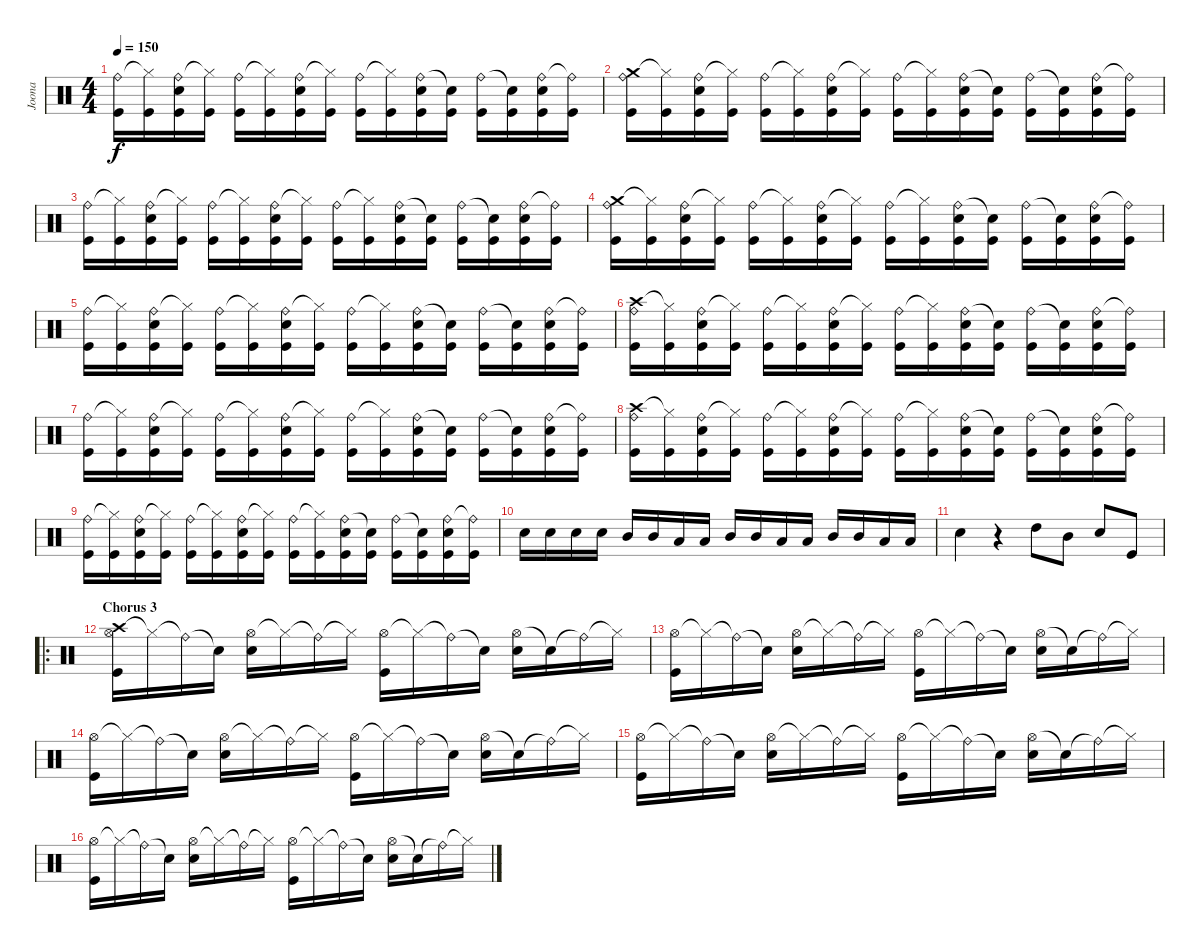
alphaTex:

\track ("Joona" "Joona") {instrument percussion}
\staff {score}
\articulation defaults
\ts (4 4)
\tempo 150
\clef neutral
\ks c
("Ride (bell)" "Kick (hit)").16{dy f} ("Hi-Hat (closed)"{t} "Kick (hit)").16 ("Ride (bell)" "Snare (hit) 2" "Kick (hit)").16 ("Hi-Hat (closed)"{t} "Kick (hit)").16 ("Ride (bell)" "Kick (hit)").16 ("Hi-Hat (closed)"{t} "Kick (hit)").16 ("Ride (bell)" "Snare (hit) 2" "Kick (hit)").16 ("Hi-Hat (closed)"{t} "Kick (hit)").16 ("Ride (bell)" "Kick (hit)").16 ("Hi-Hat (closed)"{t} "Kick (hit)").16 ("Ride (bell)" "Snare (hit) 2" "Kick (hit)").16 ("Snare (hit)"{t} "Kick (hit)").16 ("Ride (bell)" "Kick (hit)").16 ("Snare (hit)"{t} "Kick (hit)").16 ("Ride (bell)" "Snare (hit) 2" "Kick (hit)").16 ("Ride (bell)"{t} "Kick (hit)").16 |
("Crash medium (hit)" "Ride (bell)" "Kick (hit)").16 ("Hi-Hat (closed)"{t} "Kick (hit)").16 ("Ride (bell)" "Snare (hit) 2" "Kick (hit)").16 ("Hi-Hat (closed)"{t} "Kick (hit)").16 ("Ride (bell)" "Kick (hit)").16 ("Hi-Hat (closed)"{t} "Kick (hit)").16 ("Ride (bell)" "Snare (hit) 2" "Kick (hit)").16 ("Hi-Hat (closed)"{t} "Kick (hit)").16 ("Ride (bell)" "Kick (hit)").16 ("Hi-Hat (closed)"{t} "Kick (hit)").16 ("Ride (bell)" "Snare (hit) 2" "Kick (hit)").16 ("Snare (hit)"{t} "Kick (hit)").16 ("Ride (bell)" "Kick (hit)").16 ("Snare (hit)"{t} "Kick (hit)").16 ("Ride (bell)" "Snare (hit) 2" "Kick (hit)").16 ("Ride (bell)"{t} "Kick (hit)").16 |
("Ride (bell)" "Kick (hit)").16 ("Hi-Hat (closed)"{t} "Kick (hit)").16 ("Ride (bell)" "Snare (hit) 2" "Kick (hit)").16 ("Hi-Hat (closed)"{t} "Kick (hit)").16 ("Ride (bell)" "Kick (hit)").16 ("Hi-Hat (closed)"{t} "Kick (hit)").16 ("Ride (bell)" "Snare (hit) 2" "Kick (hit)").16 ("Hi-Hat (closed)"{t} "Kick (hit)").16 ("Ride (bell)" "Kick (hit)").16 ("Hi-Hat (closed)"{t} "Kick (hit)").16 ("Ride (bell)" "Snare (hit) 2" "Kick (hit)").16 ("Snare (hit)"{t} "Kick (hit)").16 ("Ride (bell)" "Kick (hit)").16 ("Snare (hit)"{t} "Kick (hit)").16 ("Ride (bell)" "Snare (hit) 2" "Kick (hit)").16 ("Ride (bell)"{t} "Kick (hit)").16 |
("Crash medium (hit)" "Ride (bell)" "Kick (hit)").16 ("Hi-Hat (closed)"{t} "Kick (hit)").16 ("Ride (bell)" "Snare (hit) 2" "Kick (hit)").16 ("Hi-Hat (closed)"{t} "Kick (hit)").16 ("Ride (bell)" "Kick (hit)").16 ("Hi-Hat (closed)"{t} "Kick (hit)").16 ("Ride (bell)" "Snare (hit) 2" "Kick (hit)").16 ("Hi-Hat (closed)"{t} "Kick (hit)").16 ("Ride (bell)" "Kick (hit)").16 ("Hi-Hat (closed)"{t} "Kick (hit)").16 ("Ride (bell)" "Snare (hit) 2" "Kick (hit)").16 ("Snare (hit)"{t} "Kick (hit)").16 ("Ride (bell)" "Kick (hit)").16 ("Snare (hit)"{t} "Kick (hit)").16 ("Ride (bell)" "Snare (hit) 2" "Kick (hit)").16 ("Ride (bell)"{t} "Kick (hit)").16 |
("Ride (bell)" "Kick (hit)").16 ("Hi-Hat (closed)"{t} "Kick (hit)").16 ("Ride (bell)" "Snare (hit) 2" "Kick (hit)").16 ("Hi-Hat (closed)"{t} "Kick (hit)").16 ("Ride (bell)" "Kick (hit)").16 ("Hi-Hat (closed)"{t} "Kick (hit)").16 ("Ride (bell)" "Snare (hit) 2" "Kick (hit)").16 ("Hi-Hat (closed)"{t} "Kick (hit)").16 ("Ride (bell)" "Kick (hit)").16 ("Hi-Hat (closed)"{t} "Kick (hit)").16 ("Ride (bell)" "Snare (hit) 2" "Kick (hit)").16 ("Snare (hit)"{t} "Kick (hit)").16 ("Ride (bell)" "Kick (hit)").16 ("Snare (hit)"{t} "Kick (hit)").16 ("Ride (bell)" "Snare (hit) 2" "Kick (hit)").16 ("Ride (bell)"{t} "Kick (hit)").16 |
("Crash high (hit)" "Ride (bell)" "Kick (hit)").16 ("Hi-Hat (closed)"{t} "Kick (hit)").16 ("Ride (bell)" "Snare (hit) 2" "Kick (hit)").16 ("Hi-Hat (closed)"{t} "Kick (hit)").16 ("Ride (bell)" "Kick (hit)").16 ("Hi-Hat (closed)"{t} "Kick (hit)").16 ("Ride (bell)" "Snare (hit) 2" "Kick (hit)").16 ("Hi-Hat (closed)"{t} "Kick (hit)").16 ("Ride (bell)" "Kick (hit)").16 ("Hi-Hat (closed)"{t} "Kick (hit)").16 ("Ride (bell)" "Snare (hit) 2" "Kick (hit)").16 ("Snare (hit)"{t} "Kick (hit)").16 ("Ride (bell)" "Kick (hit)").16 ("Snare (hit)"{t} "Kick (hit)").16 ("Ride (bell)" "Snare (hit) 2" "Kick (hit)").16 ("Ride (bell)"{t} "Kick (hit)").16 |
("Ride (bell)" "Kick (hit)").16 ("Hi-Hat (closed)"{t} "Kick (hit)").16 ("Ride (bell)" "Snare (hit) 2" "Kick (hit)").16 ("Hi-Hat (closed)"{t} "Kick (hit)").16 ("Ride (bell)" "Kick (hit)").16 ("Hi-Hat (closed)"{t} "Kick (hit)").16 ("Ride (bell)" "Snare (hit) 2" "Kick (hit)").16 ("Hi-Hat (closed)"{t} "Kick (hit)").16 ("Ride (bell)" "Kick (hit)").16 ("Hi-Hat (closed)"{t} "Kick (hit)").16 ("Ride (bell)" "Snare (hit) 2" "Kick (hit)").16 ("Snare (hit)"{t} "Kick (hit)").16 ("Ride (bell)" "Kick (hit)").16 ("Snare (hit)"{t} "Kick (hit)").16 ("Ride (bell)" "Snare (hit) 2" "Kick (hit)").16 ("Ride (bell)"{t} "Kick (hit)").16 |
("Crash high (hit)" "Ride (bell)" "Kick (hit)").16 ("Hi-Hat (closed)"{t} "Kick (hit)").16 ("Ride (bell)" "Snare (hit) 2" "Kick (hit)").16 ("Hi-Hat (closed)"{t} "Kick (hit)").16 ("Ride (bell)" "Kick (hit)").16 ("Hi-Hat (closed)"{t} "Kick (hit)").16 ("Ride (bell)" "Snare (hit) 2" "Kick (hit)").16 ("Hi-Hat (closed)"{t} "Kick (hit)").16 ("Ride (bell)" "Kick (hit)").16 ("Hi-Hat (closed)"{t} "Kick (hit)").16 ("Ride (bell)" "Snare (hit) 2" "Kick (hit)").16 ("Snare (hit)"{t} "Kick (hit)").16 ("Ride (bell)" "Kick (hit)").16 ("Snare (hit)"{t} "Kick (hit)").16 ("Ride (bell)" "Snare (hit) 2" "Kick (hit)").16 ("Ride (bell)"{t} "Kick (hit)").16 |
("Ride (bell)" "Kick (hit)").16 ("Hi-Hat (closed)"{t} "Kick (hit)").16 ("Ride (bell)" "Snare (hit) 2" "Kick (hit)").16 ("Hi-Hat (closed)"{t} "Kick (hit)").16 ("Ride (bell)" "Kick (hit)").16 ("Hi-Hat (closed)"{t} "Kick (hit)").16 ("Ride (bell)" "Snare (hit) 2" "Kick (hit)").16 ("Hi-Hat (closed)"{t} "Kick (hit)").16 ("Ride (bell)" "Kick (hit)").16 ("Hi-Hat (closed)"{t} "Kick (hit)").16 ("Ride (bell)" "Snare (hit) 2" "Kick (hit)").16 ("Snare (hit)"{t} "Kick (hit)").16 ("Ride (bell)" "Kick (hit)").16 ("Snare (hit)"{t} "Kick (hit)").16 ("Ride (bell)" "Snare (hit) 2" "Kick (hit)").16 ("Ride (bell)"{t} "Kick (hit)").16 |
"Snare (hit) 2".16 "Snare (hit) 2".16 "Snare (hit) 2".16 "Snare (hit) 2".16 "Mid Tom (hit)".16 "Mid Tom (hit)".16 "Low Tom (hit)".16 "Low Tom (hit)".16 "Mid Tom (hit)".16 "Mid Tom (hit)".16 "Low Tom (hit)".16 "Low Tom (hit)".16 "Mid Tom (hit)".16 "Mid Tom (hit)".16 "Low Tom (hit)".16 "Low Tom (hit)".16 |
"Snare (hit) 2".4 r.4 "High Tom (hit)".8 "Mid Tom (hit)".8 "Snare (hit) 2".8 "Kick (hit)".8 |
\ro
\section ("" "Chorus 3")
("Crash high (hit)" "Hi-Hat (open)" "Kick (hit)").16 "Hi-Hat (closed)"{t}.16 "Ride (bell)"{t}.16 "Snare (hit)"{t}.16 ("Hi-Hat (open)" "Snare (hit) 2").16 "Hi-Hat (closed)"{t}.16 "Ride (bell)"{t}.16 "Hi-Hat (closed)"{t}.16 ("Hi-Hat (open)" "Kick (hit)").16 "Hi-Hat (closed)"{t}.16 "Ride (bell)"{t}.16 "Snare (hit)"{t}.16 ("Hi-Hat (open)" "Snare (hit) 2").16 "Snare (hit)"{t}.16 "Ride (bell)"{t}.16 "Hi-Hat (closed)"{t}.16 |
("Hi-Hat (open)" "Kick (hit)").16 "Hi-Hat (closed)"{t}.16 "Ride (bell)"{t}.16 "Snare (hit)"{t}.16 ("Hi-Hat (open)" "Snare (hit) 2").16 "Hi-Hat (closed)"{t}.16 "Ride (bell)"{t}.16 "Hi-Hat (closed)"{t}.16 ("Hi-Hat (open)" "Kick (hit)").16 "Hi-Hat (closed)"{t}.16 "Ride (bell)"{t}.16 "Snare (hit)"{t}.16 ("Hi-Hat (open)" "Snare (hit) 2").16 "Snare (hit)"{t}.16 "Ride (bell)"{t}.16 "Hi-Hat (closed)"{t}.16 |
("Hi-Hat (open)" "Kick (hit)").16 "Hi-Hat (closed)"{t}.16 "Ride (bell)"{t}.16 "Snare (hit)"{t}.16 ("Hi-Hat (open)" "Snare (hit) 2").16 "Hi-Hat (closed)"{t}.16 "Ride (bell)"{t}.16 "Hi-Hat (closed)"{t}.16 ("Hi-Hat (open)" "Kick (hit)").16 "Hi-Hat (closed)"{t}.16 "Ride (bell)"{t}.16 "Snare (hit)"{t}.16 ("Hi-Hat (open)" "Snare (hit) 2").16 "Snare (hit)"{t}.16 "Ride (bell)"{t}.16 "Hi-Hat (closed)"{t}.16 |
("Hi-Hat (open)" "Kick (hit)").16 "Hi-Hat (closed)"{t}.16 "Ride (bell)"{t}.16 "Snare (hit)"{t}.16 ("Hi-Hat (open)" "Snare (hit) 2").16 "Hi-Hat (closed)"{t}.16 "Ride (bell)"{t}.16 "Hi-Hat (closed)"{t}.16 ("Hi-Hat (open)" "Kick (hit)").16 "Hi-Hat (closed)"{t}.16 "Ride (bell)"{t}.16 "Snare (hit)"{t}.16 ("Hi-Hat (open)" "Snare (hit) 2").16 "Snare (hit)"{t}.16 "Ride (bell)"{t}.16 "Hi-Hat (closed)"{t}.16 |
("Hi-Hat (open)" "Kick (hit)").16 "Hi-Hat (closed)"{t}.16 "Ride (bell)"{t}.16 "Snare (hit)"{t}.16 ("Hi-Hat (open)" "Snare (hit) 2").16 "Hi-Hat (closed)"{t}.16 "Ride (bell)"{t}.16 "Hi-Hat (closed)"{t}.16 ("Hi-Hat (open)" "Kick (hit)").16 "Hi-Hat (closed)"{t}.16 "Ride (bell)"{t}.16 "Snare (hit)"{t}.16 ("Hi-Hat (open)" "Snare (hit) 2").16 "Snare (hit)"{t}.16 "Ride (bell)"{t}.16 "Hi-Hat (closed)"{t}.16
